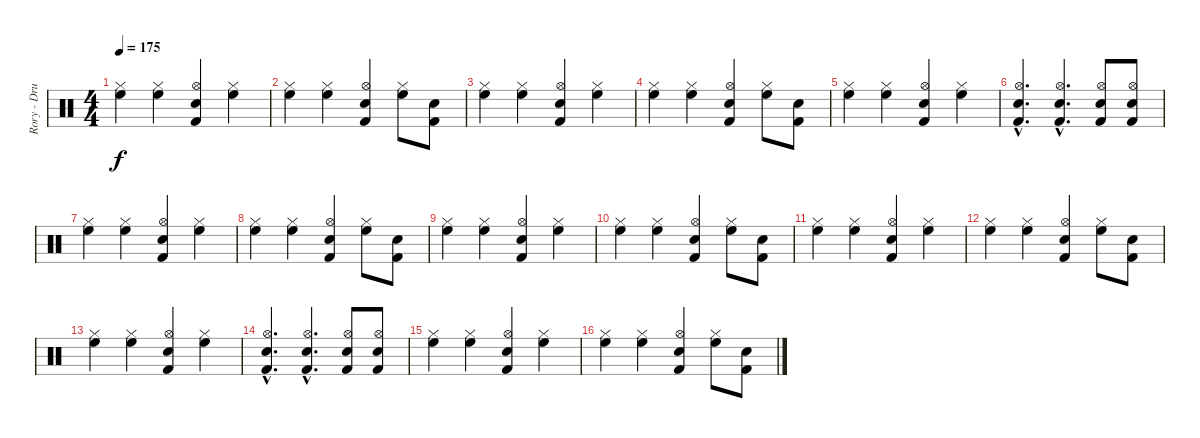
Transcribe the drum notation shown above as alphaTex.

\track ("Rory - Drums" "Rory - Dru") {instrument percussion}
\staff {score}
\articulation defaults
\ts (4 4)
\tempo 175
\clef neutral
\ks c
("Hi-Hat (closed)" "High Floor Tom (hit)").4{dy f} ("Hi-Hat (closed)" "High Floor Tom (hit)").4 ("Kick (hit) 2" "Hi-Hat (open)" "Snare (hit) 2").4 ("Hi-Hat (closed)" "High Floor Tom (hit)").4 |
("Hi-Hat (closed)" "High Floor Tom (hit)").4 ("Hi-Hat (closed)" "High Floor Tom (hit)").4 ("Kick (hit) 2" "Hi-Hat (open)" "Snare (hit) 2").4 ("Hi-Hat (closed)" "High Floor Tom (hit)").8 ("Kick (hit) 2" "Snare (hit) 2").8 |
("Hi-Hat (closed)" "High Floor Tom (hit)").4 ("Hi-Hat (closed)" "High Floor Tom (hit)").4 ("Kick (hit) 2" "Hi-Hat (open)" "Snare (hit) 2").4 ("Hi-Hat (closed)" "High Floor Tom (hit)").4 |
("Hi-Hat (closed)" "High Floor Tom (hit)").4 ("Hi-Hat (closed)" "High Floor Tom (hit)").4 ("Kick (hit) 2" "Hi-Hat (open)" "Snare (hit) 2").4 ("Hi-Hat (closed)" "High Floor Tom (hit)").8 ("Kick (hit) 2" "Snare (hit) 2").8 |
("Hi-Hat (closed)" "High Floor Tom (hit)").4 ("Hi-Hat (closed)" "High Floor Tom (hit)").4 ("Kick (hit) 2" "Hi-Hat (open)" "Snare (hit) 2").4 ("Hi-Hat (closed)" "High Floor Tom (hit)").4 |
("Kick (hit) 2"{hac} "Hi-Hat (open)"{hac} "Snare (hit) 2"{hac}).4{d} ("Kick (hit) 2"{hac} "Hi-Hat (open)"{hac} "Snare (hit) 2"{hac}).4{d} ("Kick (hit) 2" "Hi-Hat (open)" "Snare (hit) 2").8 ("Kick (hit) 2" "Hi-Hat (open)" "Snare (hit) 2").8 |
("Hi-Hat (closed)" "High Floor Tom (hit)").4 ("Hi-Hat (closed)" "High Floor Tom (hit)").4 ("Kick (hit) 2" "Hi-Hat (open)" "Snare (hit) 2").4 ("Hi-Hat (closed)" "High Floor Tom (hit)").4 |
("Hi-Hat (closed)" "High Floor Tom (hit)").4 ("Hi-Hat (closed)" "High Floor Tom (hit)").4 ("Kick (hit) 2" "Hi-Hat (open)" "Snare (hit) 2").4 ("Hi-Hat (closed)" "High Floor Tom (hit)").8 ("Kick (hit) 2" "Snare (hit) 2").8 |
("Hi-Hat (closed)" "High Floor Tom (hit)").4 ("Hi-Hat (closed)" "High Floor Tom (hit)").4 ("Kick (hit) 2" "Hi-Hat (open)" "Snare (hit) 2").4 ("Hi-Hat (closed)" "High Floor Tom (hit)").4 |
("Hi-Hat (closed)" "High Floor Tom (hit)").4 ("Hi-Hat (closed)" "High Floor Tom (hit)").4 ("Kick (hit) 2" "Hi-Hat (open)" "Snare (hit) 2").4 ("Hi-Hat (closed)" "High Floor Tom (hit)").8 ("Kick (hit) 2" "Snare (hit) 2").8 |
("Hi-Hat (closed)" "High Floor Tom (hit)").4 ("Hi-Hat (closed)" "High Floor Tom (hit)").4 ("Kick (hit) 2" "Hi-Hat (open)" "Snare (hit) 2").4 ("Hi-Hat (closed)" "High Floor Tom (hit)").4 |
("Hi-Hat (closed)" "High Floor Tom (hit)").4 ("Hi-Hat (closed)" "High Floor Tom (hit)").4 ("Kick (hit) 2" "Hi-Hat (open)" "Snare (hit) 2").4 ("Hi-Hat (closed)" "High Floor Tom (hit)").8 ("Kick (hit) 2" "Snare (hit) 2").8 |
("Hi-Hat (closed)" "High Floor Tom (hit)").4 ("Hi-Hat (closed)" "High Floor Tom (hit)").4 ("Kick (hit) 2" "Hi-Hat (open)" "Snare (hit) 2").4 ("Hi-Hat (closed)" "High Floor Tom (hit)").4 |
("Kick (hit) 2"{hac} "Hi-Hat (open)"{hac} "Snare (hit) 2"{hac}).4{d} ("Kick (hit) 2"{hac} "Hi-Hat (open)"{hac} "Snare (hit) 2"{hac}).4{d} ("Kick (hit) 2" "Hi-Hat (open)" "Snare (hit) 2").8 ("Kick (hit) 2" "Hi-Hat (open)" "Snare (hit) 2").8 |
("Hi-Hat (closed)" "High Floor Tom (hit)").4 ("Hi-Hat (closed)" "High Floor Tom (hit)").4 ("Kick (hit) 2" "Hi-Hat (open)" "Snare (hit) 2").4 ("Hi-Hat (closed)" "High Floor Tom (hit)").4 |
("Hi-Hat (closed)" "High Floor Tom (hit)").4 ("Hi-Hat (closed)" "High Floor Tom (hit)").4 ("Kick (hit) 2" "Hi-Hat (open)" "Snare (hit) 2").4 ("Hi-Hat (closed)" "High Floor Tom (hit)").8 ("Kick (hit) 2" "Snare (hit) 2").8
